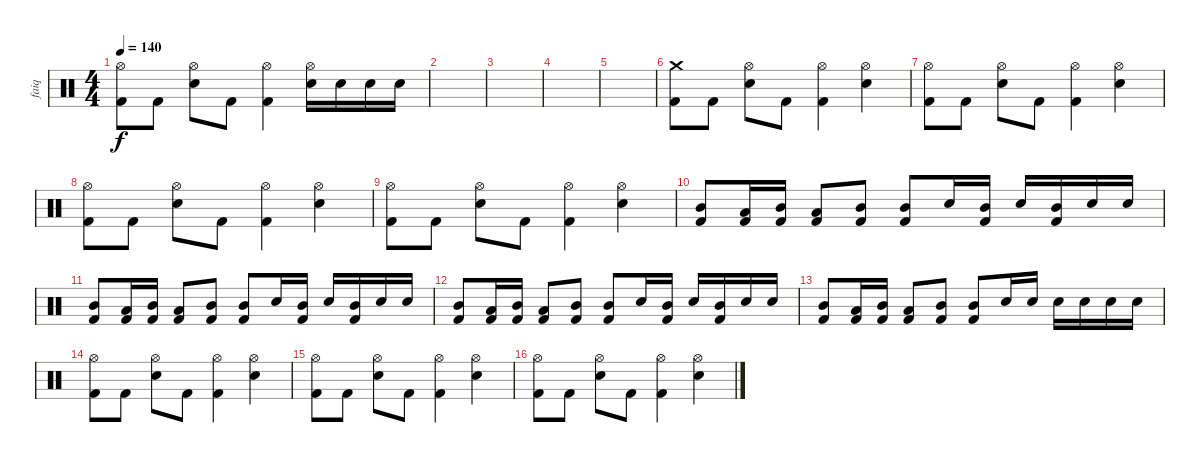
\track ("faiq" "faiq") {instrument percussion}
\staff {score}
\articulation defaults
\ts (4 4)
\tempo 140
\clef neutral
\ks c
("Hi-Hat (open)" "Kick (hit) 2").8{dy f} "Kick (hit) 2".8 ("Hi-Hat (open)" "Electric Snare (hit)").8 "Kick (hit) 2".8 ("Hi-Hat (open)" "Kick (hit) 2").4 ("Hi-Hat (open)" "Electric Snare (hit)").16 "Electric Snare (hit)".16 "Electric Snare (hit)".16 "Electric Snare (hit)".16 |
|
|
|
|
("Crash medium (hit)" "Kick (hit) 2").8 "Kick (hit) 2".8 ("Hi-Hat (open)" "Electric Snare (hit)").8 "Kick (hit) 2".8 ("Hi-Hat (open)" "Kick (hit) 2").4 ("Hi-Hat (open)" "Electric Snare (hit)").4 |
("Hi-Hat (open)" "Kick (hit) 2").8 "Kick (hit) 2".8 ("Hi-Hat (open)" "Electric Snare (hit)").8 "Kick (hit) 2".8 ("Hi-Hat (open)" "Kick (hit) 2").4 ("Hi-Hat (open)" "Electric Snare (hit)").4 |
("Hi-Hat (open)" "Kick (hit) 2").8 "Kick (hit) 2".8 ("Hi-Hat (open)" "Electric Snare (hit)").8 "Kick (hit) 2".8 ("Hi-Hat (open)" "Kick (hit) 2").4 ("Hi-Hat (open)" "Electric Snare (hit)").4 |
("Hi-Hat (open)" "Kick (hit) 2").8 "Kick (hit) 2".8 ("Hi-Hat (open)" "Electric Snare (hit)").8 "Kick (hit) 2".8 ("Hi-Hat (open)" "Kick (hit) 2").4 ("Hi-Hat (open)" "Electric Snare (hit)").4 |
("Kick (hit) 2" "Mid Tom (hit)").8 ("Kick (hit) 2" "Low Floor Tom (hit)").16 ("Kick (hit) 2" "Mid Tom (hit)").16 ("Kick (hit) 2" "Low Floor Tom (hit)").8 ("Kick (hit) 2" "Mid Tom (hit)").8 ("Kick (hit) 2" "Mid Tom (hit)").8 "Electric Snare (hit)".16 ("Kick (hit) 2" "Mid Tom (hit)").16 "Electric Snare (hit)".16 ("Kick (hit) 2" "Mid Tom (hit)").16 "Electric Snare (hit)".16 "Electric Snare (hit)".16 |
("Kick (hit) 2" "Mid Tom (hit)").8 ("Kick (hit) 2" "Low Floor Tom (hit)").16 ("Kick (hit) 2" "Mid Tom (hit)").16 ("Kick (hit) 2" "Low Floor Tom (hit)").8 ("Kick (hit) 2" "Mid Tom (hit)").8 ("Kick (hit) 2" "Mid Tom (hit)").8 "Electric Snare (hit)".16 ("Kick (hit) 2" "Mid Tom (hit)").16 "Electric Snare (hit)".16 ("Kick (hit) 2" "Mid Tom (hit)").16 "Electric Snare (hit)".16 "Electric Snare (hit)".16 |
("Kick (hit) 2" "Mid Tom (hit)").8 ("Kick (hit) 2" "Low Floor Tom (hit)").16 ("Kick (hit) 2" "Mid Tom (hit)").16 ("Kick (hit) 2" "Low Floor Tom (hit)").8 ("Kick (hit) 2" "Mid Tom (hit)").8 ("Kick (hit) 2" "Mid Tom (hit)").8 "Electric Snare (hit)".16 ("Kick (hit) 2" "Mid Tom (hit)").16 "Electric Snare (hit)".16 ("Kick (hit) 2" "Mid Tom (hit)").16 "Electric Snare (hit)".16 "Electric Snare (hit)".16 |
("Kick (hit) 2" "Mid Tom (hit)").8 ("Kick (hit) 2" "Low Floor Tom (hit)").16 ("Kick (hit) 2" "Mid Tom (hit)").16 ("Kick (hit) 2" "Low Floor Tom (hit)").8 ("Kick (hit) 2" "Mid Tom (hit)").8 ("Kick (hit) 2" "Mid Tom (hit)").8 "Electric Snare (hit)".16 "Electric Snare (hit)".16 "Electric Snare (hit)".16 "Electric Snare (hit)".16 "Electric Snare (hit)".16 "Electric Snare (hit)".16 |
("Hi-Hat (open)" "Kick (hit) 2").8 "Kick (hit) 2".8 ("Hi-Hat (open)" "Electric Snare (hit)").8 "Kick (hit) 2".8 ("Hi-Hat (open)" "Kick (hit) 2").4 ("Hi-Hat (open)" "Electric Snare (hit)").4 |
("Hi-Hat (open)" "Kick (hit) 2").8 "Kick (hit) 2".8 ("Hi-Hat (open)" "Electric Snare (hit)").8 "Kick (hit) 2".8 ("Hi-Hat (open)" "Kick (hit) 2").4 ("Hi-Hat (open)" "Electric Snare (hit)").4 |
("Hi-Hat (open)" "Kick (hit) 2").8 "Kick (hit) 2".8 ("Hi-Hat (open)" "Electric Snare (hit)").8 "Kick (hit) 2".8 ("Hi-Hat (open)" "Kick (hit) 2").4 ("Hi-Hat (open)" "Electric Snare (hit)").4
